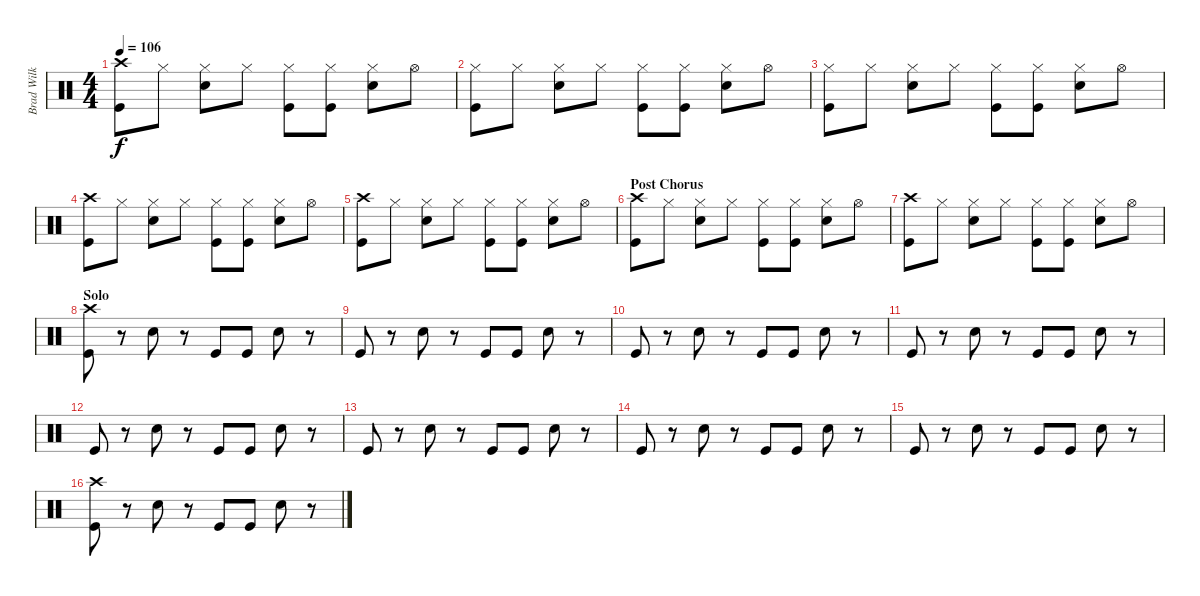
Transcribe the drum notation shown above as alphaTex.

\track ("Brad Wilk" "Brad Wilk") {instrument percussion}
\staff {score}
\articulation defaults
\ts (4 4)
\tempo 106
\clef neutral
\ks c
("Crash high (hit)" "Kick (hit)").8{dy f} "Hi-Hat (closed)".8 ("Hi-Hat (closed)" "Electric Snare (hit)").8 "Hi-Hat (closed)".8 ("Hi-Hat (closed)" "Kick (hit)").8 ("Hi-Hat (closed)" "Kick (hit)").8 ("Hi-Hat (closed)" "Electric Snare (hit)").8 "Hi-Hat (open)".8 |
("Hi-Hat (closed)" "Kick (hit)").8 "Hi-Hat (closed)".8 ("Hi-Hat (closed)" "Electric Snare (hit)").8 "Hi-Hat (closed)".8 ("Hi-Hat (closed)" "Kick (hit)").8 ("Hi-Hat (closed)" "Kick (hit)").8 ("Hi-Hat (closed)" "Electric Snare (hit)").8 "Hi-Hat (open)".8 |
("Hi-Hat (closed)" "Kick (hit)").8 "Hi-Hat (closed)".8 ("Hi-Hat (closed)" "Electric Snare (hit)").8 "Hi-Hat (closed)".8 ("Hi-Hat (closed)" "Kick (hit)").8 ("Hi-Hat (closed)" "Kick (hit)").8 ("Hi-Hat (closed)" "Electric Snare (hit)").8 "Hi-Hat (open)".8 |
("Crash high (hit)" "Kick (hit)").8 "Hi-Hat (closed)".8 ("Hi-Hat (closed)" "Electric Snare (hit)").8 "Hi-Hat (closed)".8 ("Hi-Hat (closed)" "Kick (hit)").8 ("Hi-Hat (closed)" "Kick (hit)").8 ("Hi-Hat (closed)" "Electric Snare (hit)").8 "Hi-Hat (open)".8 |
("Crash high (hit)" "Kick (hit)").8 "Hi-Hat (closed)".8 ("Hi-Hat (closed)" "Electric Snare (hit)").8 "Hi-Hat (closed)".8 ("Hi-Hat (closed)" "Kick (hit)").8 ("Hi-Hat (closed)" "Kick (hit)").8 ("Hi-Hat (closed)" "Electric Snare (hit)").8 "Hi-Hat (open)".8 |
\section ("" "Post Chorus")
("Crash high (hit)" "Kick (hit)").8 "Hi-Hat (closed)".8 ("Hi-Hat (closed)" "Electric Snare (hit)").8 "Hi-Hat (closed)".8 ("Hi-Hat (closed)" "Kick (hit)").8 ("Hi-Hat (closed)" "Kick (hit)").8 ("Hi-Hat (closed)" "Electric Snare (hit)").8 "Hi-Hat (open)".8 |
("Crash high (hit)" "Kick (hit)").8 "Hi-Hat (closed)".8 ("Hi-Hat (closed)" "Electric Snare (hit)").8 "Hi-Hat (closed)".8 ("Hi-Hat (closed)" "Kick (hit)").8 ("Hi-Hat (closed)" "Kick (hit)").8 ("Hi-Hat (closed)" "Electric Snare (hit)").8 "Hi-Hat (open)".8 |
\section ("" "Solo")
("Crash high (hit)" "Kick (hit)").8 r.8 "Electric Snare (hit)".8 r.8 "Kick (hit)".8 "Kick (hit)".8 "Electric Snare (hit)".8 r.8 |
"Kick (hit)".8 r.8 "Electric Snare (hit)".8 r.8 "Kick (hit)".8 "Kick (hit)".8 "Electric Snare (hit)".8 r.8 |
"Kick (hit)".8 r.8 "Electric Snare (hit)".8 r.8 "Kick (hit)".8 "Kick (hit)".8 "Electric Snare (hit)".8 r.8 |
"Kick (hit)".8 r.8 "Electric Snare (hit)".8 r.8 "Kick (hit)".8 "Kick (hit)".8 "Electric Snare (hit)".8 r.8 |
"Kick (hit)".8 r.8 "Electric Snare (hit)".8 r.8 "Kick (hit)".8 "Kick (hit)".8 "Electric Snare (hit)".8 r.8 |
"Kick (hit)".8 r.8 "Electric Snare (hit)".8 r.8 "Kick (hit)".8 "Kick (hit)".8 "Electric Snare (hit)".8 r.8 |
"Kick (hit)".8 r.8 "Electric Snare (hit)".8 r.8 "Kick (hit)".8 "Kick (hit)".8 "Electric Snare (hit)".8 r.8 |
"Kick (hit)".8 r.8 "Electric Snare (hit)".8 r.8 "Kick (hit)".8 "Kick (hit)".8 "Electric Snare (hit)".8 r.8 |
("Crash high (hit)" "Kick (hit)").8 r.8 "Electric Snare (hit)".8 r.8 "Kick (hit)".8 "Kick (hit)".8 "Electric Snare (hit)".8 r.8
